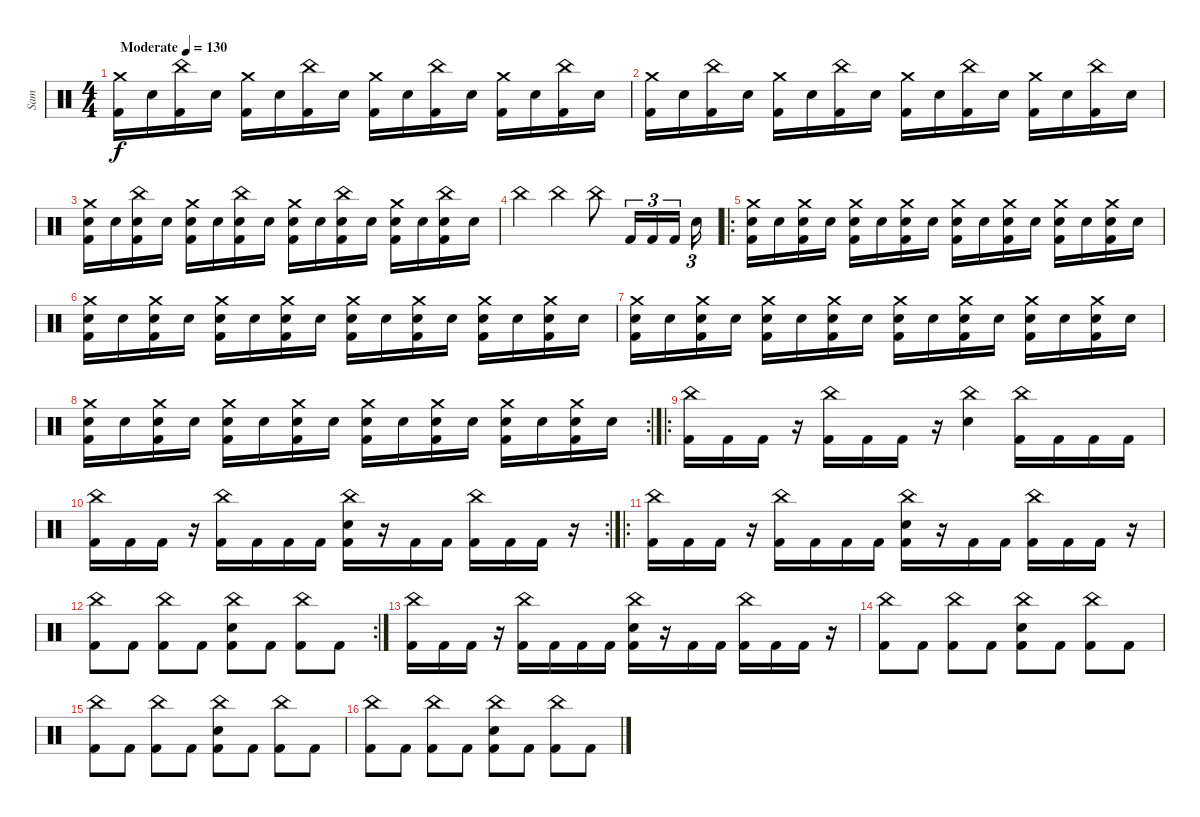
\track ("Sam" "Sam") {instrument percussion}
\staff {score}
\articulation defaults
\ts (4 4)
\tempo (130 "Moderate")
\clef neutral
\ks c
("Crash medium (hit)" "Kick (hit) 2").16{dy f} "Snare (hit) 2".16 ("China (hit)" "Kick (hit) 2").16 "Snare (hit) 2".16 ("Crash medium (hit)" "Kick (hit) 2").16 "Snare (hit) 2".16 ("China (hit)" "Kick (hit) 2").16 "Snare (hit) 2".16 ("Crash medium (hit)" "Kick (hit) 2").16 "Snare (hit) 2".16 ("China (hit)" "Kick (hit) 2").16 "Snare (hit) 2".16 ("Crash medium (hit)" "Kick (hit) 2").16 "Snare (hit) 2".16 ("China (hit)" "Kick (hit) 2").16 "Snare (hit) 2".16 |
("Crash medium (hit)" "Kick (hit) 2").16 "Snare (hit) 2".16 ("China (hit)" "Kick (hit) 2").16 "Snare (hit) 2".16 ("Crash medium (hit)" "Kick (hit) 2").16 "Snare (hit) 2".16 ("China (hit)" "Kick (hit) 2").16 "Snare (hit) 2".16 ("Crash medium (hit)" "Kick (hit) 2").16 "Snare (hit) 2".16 ("China (hit)" "Kick (hit) 2").16 "Snare (hit) 2".16 ("Crash medium (hit)" "Kick (hit) 2").16 "Snare (hit) 2".16 ("China (hit)" "Kick (hit) 2").16 "Snare (hit) 2".16 |
("Crash medium (hit)" "Snare (hit) 2" "Kick (hit) 2").16 "Snare (hit) 2".16 ("China (hit)" "Snare (hit) 2" "Kick (hit) 2").16 "Snare (hit) 2".16 ("Crash medium (hit)" "Snare (hit) 2" "Kick (hit) 2").16 "Snare (hit) 2".16 ("China (hit)" "Snare (hit) 2" "Kick (hit) 2").16 "Snare (hit) 2".16 ("Crash medium (hit)" "Snare (hit) 2" "Kick (hit) 2").16 "Snare (hit) 2".16 ("China (hit)" "Snare (hit) 2" "Kick (hit) 2").16 "Snare (hit) 2".16 ("Crash medium (hit)" "Snare (hit) 2" "Kick (hit) 2").16 "Snare (hit) 2".16 ("China (hit)" "Snare (hit) 2" "Kick (hit) 2").16 "Snare (hit) 2".16 |
"China (hit)".4 "China (hit)".4 "China (hit)".8 "Kick (hit) 2".16{tu (3 2)} "Kick (hit) 2".16{tu (3 2)} "Kick (hit) 2".16{tu (3 2)} "Snare (hit) 2".16{tu (3 2)} |
\ro
("Crash medium (hit)" "Snare (hit) 2" "Kick (hit) 2").16 "Snare (hit) 2".16 ("Crash medium (hit)" "Snare (hit) 2" "Kick (hit) 2").16 "Snare (hit) 2".16 ("Crash medium (hit)" "Snare (hit) 2" "Kick (hit) 2").16 "Snare (hit) 2".16 ("Crash medium (hit)" "Snare (hit) 2" "Kick (hit) 2").16 "Snare (hit) 2".16 ("Crash medium (hit)" "Snare (hit) 2" "Kick (hit) 2").16 "Snare (hit) 2".16 ("Crash medium (hit)" "Snare (hit) 2" "Kick (hit) 2").16 "Snare (hit) 2".16 ("Crash medium (hit)" "Snare (hit) 2" "Kick (hit) 2").16 "Snare (hit) 2".16 ("Crash medium (hit)" "Snare (hit) 2" "Kick (hit) 2").16 "Snare (hit) 2".16 |
("Crash medium (hit)" "Snare (hit) 2" "Kick (hit) 2").16 "Snare (hit) 2".16 ("Crash medium (hit)" "Snare (hit) 2" "Kick (hit) 2").16 "Snare (hit) 2".16 ("Crash medium (hit)" "Snare (hit) 2" "Kick (hit) 2").16 "Snare (hit) 2".16 ("Crash medium (hit)" "Snare (hit) 2" "Kick (hit) 2").16 "Snare (hit) 2".16 ("Crash medium (hit)" "Snare (hit) 2" "Kick (hit) 2").16 "Snare (hit) 2".16 ("Crash medium (hit)" "Snare (hit) 2" "Kick (hit) 2").16 "Snare (hit) 2".16 ("Crash medium (hit)" "Snare (hit) 2" "Kick (hit) 2").16 "Snare (hit) 2".16 ("Crash medium (hit)" "Snare (hit) 2" "Kick (hit) 2").16 "Snare (hit) 2".16 |
("Crash medium (hit)" "Snare (hit) 2" "Kick (hit) 2").16 "Snare (hit) 2".16 ("Crash medium (hit)" "Snare (hit) 2" "Kick (hit) 2").16 "Snare (hit) 2".16 ("Crash medium (hit)" "Snare (hit) 2" "Kick (hit) 2").16 "Snare (hit) 2".16 ("Crash medium (hit)" "Snare (hit) 2" "Kick (hit) 2").16 "Snare (hit) 2".16 ("Crash medium (hit)" "Snare (hit) 2" "Kick (hit) 2").16 "Snare (hit) 2".16 ("Crash medium (hit)" "Snare (hit) 2" "Kick (hit) 2").16 "Snare (hit) 2".16 ("Crash medium (hit)" "Snare (hit) 2" "Kick (hit) 2").16 "Snare (hit) 2".16 ("Crash medium (hit)" "Snare (hit) 2" "Kick (hit) 2").16 "Snare (hit) 2".16 |
\rc 2
("Crash medium (hit)" "Snare (hit) 2" "Kick (hit) 2").16 "Snare (hit) 2".16 ("Crash medium (hit)" "Snare (hit) 2" "Kick (hit) 2").16 "Snare (hit) 2".16 ("Crash medium (hit)" "Snare (hit) 2" "Kick (hit) 2").16 "Snare (hit) 2".16 ("Crash medium (hit)" "Snare (hit) 2" "Kick (hit) 2").16 "Snare (hit) 2".16 ("Crash medium (hit)" "Snare (hit) 2" "Kick (hit) 2").16 "Snare (hit) 2".16 ("Crash medium (hit)" "Snare (hit) 2" "Kick (hit) 2").16 "Snare (hit) 2".16 ("Crash medium (hit)" "Snare (hit) 2" "Kick (hit) 2").16 "Snare (hit) 2".16 ("Crash medium (hit)" "Snare (hit) 2" "Kick (hit) 2").16 "Snare (hit) 2".16 |
\ro
("China (hit)" "Kick (hit) 2").16 "Kick (hit) 2".16 "Kick (hit) 2".16 r.16 ("China (hit)" "Kick (hit) 2").16 "Kick (hit) 2".16 "Kick (hit) 2".16 r.16 ("China (hit)" "Snare (hit) 2").4 ("China (hit)" "Kick (hit) 2").16 "Kick (hit) 2".16 "Kick (hit) 2".16 "Kick (hit) 2".16 |
\rc 2
("China (hit)" "Kick (hit) 2").16 "Kick (hit) 2".16 "Kick (hit) 2".16 r.16 ("China (hit)" "Kick (hit) 2").16 "Kick (hit) 2".16 "Kick (hit) 2".16 "Kick (hit) 2".16 ("China (hit)" "Snare (hit) 2" "Kick (hit) 2").16 r.16 "Kick (hit) 2".16 "Kick (hit) 2".16 ("China (hit)" "Kick (hit) 2").16 "Kick (hit) 2".16 "Kick (hit) 2".16 r.16 |
\ro
("China (hit)" "Kick (hit) 2").16 "Kick (hit) 2".16 "Kick (hit) 2".16 r.16 ("China (hit)" "Kick (hit) 2").16 "Kick (hit) 2".16 "Kick (hit) 2".16 "Kick (hit) 2".16 ("China (hit)" "Snare (hit) 2" "Kick (hit) 2").16 r.16 "Kick (hit) 2".16 "Kick (hit) 2".16 ("China (hit)" "Kick (hit) 2").16 "Kick (hit) 2".16 "Kick (hit) 2".16 r.16 |
\rc 2
("China (hit)" "Kick (hit) 2").8 "Kick (hit) 2".8 ("China (hit)" "Kick (hit) 2").8 "Kick (hit) 2".8 ("China (hit)" "Snare (hit) 2" "Kick (hit) 2").8 "Kick (hit) 2".8 ("China (hit)" "Kick (hit) 2").8 "Kick (hit) 2".8 |
("China (hit)" "Kick (hit) 2").16 "Kick (hit) 2".16 "Kick (hit) 2".16 r.16 ("China (hit)" "Kick (hit) 2").16 "Kick (hit) 2".16 "Kick (hit) 2".16 "Kick (hit) 2".16 ("China (hit)" "Snare (hit) 2" "Kick (hit) 2").16 r.16 "Kick (hit) 2".16 "Kick (hit) 2".16 ("China (hit)" "Kick (hit) 2").16 "Kick (hit) 2".16 "Kick (hit) 2".16 r.16 |
("China (hit)" "Kick (hit) 2").8 "Kick (hit) 2".8 ("China (hit)" "Kick (hit) 2").8 "Kick (hit) 2".8 ("China (hit)" "Snare (hit) 2" "Kick (hit) 2").8 "Kick (hit) 2".8 ("China (hit)" "Kick (hit) 2").8 "Kick (hit) 2".8 |
("China (hit)" "Kick (hit) 2").8 "Kick (hit) 2".8 ("China (hit)" "Kick (hit) 2").8 "Kick (hit) 2".8 ("China (hit)" "Snare (hit) 2" "Kick (hit) 2").8 "Kick (hit) 2".8 ("China (hit)" "Kick (hit) 2").8 "Kick (hit) 2".8 |
("China (hit)" "Kick (hit) 2").8 "Kick (hit) 2".8 ("China (hit)" "Kick (hit) 2").8 "Kick (hit) 2".8 ("China (hit)" "Snare (hit) 2" "Kick (hit) 2").8 "Kick (hit) 2".8 ("China (hit)" "Kick (hit) 2").8 "Kick (hit) 2".8
